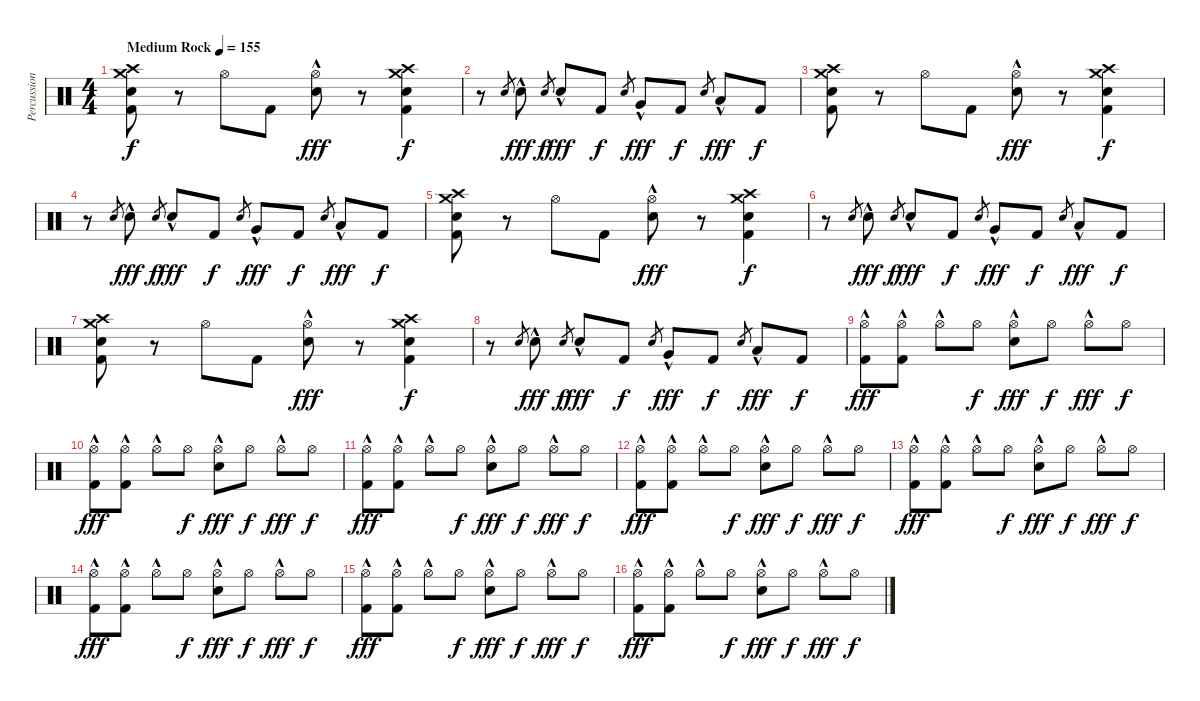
\track ("Percussion" "Percussion") {instrument percussion}
\staff {score}
\articulation defaults
\ts (4 4)
\tempo (155 "Medium Rock")
\clef neutral
\ks c
("Crash high (hit)" "Crash medium (hit)" "Electric Snare (hit)" "Kick (hit) 2").8{dy f} r.8 "Hi-Hat (open)".8 "Kick (hit) 2".8 ("Hi-Hat (open)" "Electric Snare (hit)"{hac}).8{dy fff} r.8 ("Crash high (hit)" "Crash medium (hit)" "Electric Snare (hit)" "Kick (hit) 2").4{dy f} |
r.8 "Electric Snare (hit)".8{gr} "Electric Snare (hit)"{hac}.8{dy fff} "Electric Snare (hit)".8{gr dy f} "Electric Snare (hit)"{hac}.8{dy fff} "Kick (hit) 2".8{dy f} "Electric Snare (hit)"{x}.8{gr} "Very Low Tom (hit)"{hac}.8{dy fff} "Kick (hit) 2".8{dy f} "Electric Snare (hit)"{x}.8{gr} "Low Floor Tom (hit)"{hac}.8{dy fff} "Kick (hit) 2".8{dy f} |
("Crash high (hit)" "Crash medium (hit)" "Electric Snare (hit)" "Kick (hit) 2").8 r.8 "Hi-Hat (open)".8 "Kick (hit) 2".8 ("Hi-Hat (open)" "Electric Snare (hit)"{hac}).8{dy fff} r.8 ("Crash high (hit)" "Crash medium (hit)" "Electric Snare (hit)" "Kick (hit) 2").4{dy f} |
r.8 "Electric Snare (hit)".8{gr} "Electric Snare (hit)"{hac}.8{dy fff} "Electric Snare (hit)".8{gr dy f} "Electric Snare (hit)"{hac}.8{dy fff} "Kick (hit) 2".8{dy f} "Electric Snare (hit)"{x}.8{gr} "Very Low Tom (hit)"{hac}.8{dy fff} "Kick (hit) 2".8{dy f} "Electric Snare (hit)"{x}.8{gr} "Low Floor Tom (hit)"{hac}.8{dy fff} "Kick (hit) 2".8{dy f} |
("Crash high (hit)" "Crash medium (hit)" "Electric Snare (hit)" "Kick (hit) 2").8 r.8 "Hi-Hat (open)".8 "Kick (hit) 2".8 ("Hi-Hat (open)" "Electric Snare (hit)"{hac}).8{dy fff} r.8 ("Crash high (hit)" "Crash medium (hit)" "Electric Snare (hit)" "Kick (hit) 2").4{dy f} |
r.8 "Electric Snare (hit)".8{gr} "Electric Snare (hit)"{hac}.8{dy fff} "Electric Snare (hit)".8{gr dy f} "Electric Snare (hit)"{hac}.8{dy fff} "Kick (hit) 2".8{dy f} "Electric Snare (hit)"{x}.8{gr} "Very Low Tom (hit)"{hac}.8{dy fff} "Kick (hit) 2".8{dy f} "Electric Snare (hit)"{x}.8{gr} "Low Floor Tom (hit)"{hac}.8{dy fff} "Kick (hit) 2".8{dy f} |
("Crash high (hit)" "Crash medium (hit)" "Electric Snare (hit)" "Kick (hit) 2").8 r.8 "Hi-Hat (open)".8 "Kick (hit) 2".8 ("Hi-Hat (open)" "Electric Snare (hit)"{hac}).8{dy fff} r.8 ("Crash high (hit)" "Crash medium (hit)" "Electric Snare (hit)" "Kick (hit) 2").4{dy f} |
r.8 "Electric Snare (hit)".8{gr} "Electric Snare (hit)"{hac}.8{dy fff} "Electric Snare (hit)".8{gr dy f} "Electric Snare (hit)"{hac}.8{dy fff} "Kick (hit) 2".8{dy f} "Electric Snare (hit)"{x}.8{gr} "Very Low Tom (hit)"{hac}.8{dy fff} "Kick (hit) 2".8{dy f} "Electric Snare (hit)"{x}.8{gr} "Low Floor Tom (hit)"{hac}.8{dy fff} "Kick (hit) 2".8{dy f} |
("Hi-Hat (open)"{hac} "Kick (hit) 2"{hac}).8{dy fff} ("Hi-Hat (open)" "Kick (hit) 2"{hac}).8 "Hi-Hat (open)"{hac}.8 "Hi-Hat (open)".8{dy f} ("Hi-Hat (open)"{hac} "Electric Snare (hit)"{hac}).8{dy fff} "Hi-Hat (open)".8{dy f} "Hi-Hat (open)"{hac}.8{dy fff} "Hi-Hat (open)".8{dy f} |
("Hi-Hat (open)"{hac} "Kick (hit) 2"{hac}).8{dy fff} ("Hi-Hat (open)" "Kick (hit) 2"{hac}).8 "Hi-Hat (open)"{hac}.8 "Hi-Hat (open)".8{dy f} ("Hi-Hat (open)"{hac} "Electric Snare (hit)"{hac}).8{dy fff} "Hi-Hat (open)".8{dy f} "Hi-Hat (open)"{hac}.8{dy fff} "Hi-Hat (open)".8{dy f} |
("Hi-Hat (open)"{hac} "Kick (hit) 2"{hac}).8{dy fff} ("Hi-Hat (open)" "Kick (hit) 2"{hac}).8 "Hi-Hat (open)"{hac}.8 "Hi-Hat (open)".8{dy f} ("Hi-Hat (open)"{hac} "Electric Snare (hit)"{hac}).8{dy fff} "Hi-Hat (open)".8{dy f} "Hi-Hat (open)"{hac}.8{dy fff} "Hi-Hat (open)".8{dy f} |
("Hi-Hat (open)"{hac} "Kick (hit) 2"{hac}).8{dy fff} ("Hi-Hat (open)" "Kick (hit) 2"{hac}).8 "Hi-Hat (open)"{hac}.8 "Hi-Hat (open)".8{dy f} ("Hi-Hat (open)"{hac} "Electric Snare (hit)"{hac}).8{dy fff} "Hi-Hat (open)".8{dy f} "Hi-Hat (open)"{hac}.8{dy fff} "Hi-Hat (open)".8{dy f} |
("Hi-Hat (open)"{hac} "Kick (hit) 2"{hac}).8{dy fff} ("Hi-Hat (open)" "Kick (hit) 2"{hac}).8 "Hi-Hat (open)"{hac}.8 "Hi-Hat (open)".8{dy f} ("Hi-Hat (open)"{hac} "Electric Snare (hit)"{hac}).8{dy fff} "Hi-Hat (open)".8{dy f} "Hi-Hat (open)"{hac}.8{dy fff} "Hi-Hat (open)".8{dy f} |
("Hi-Hat (open)"{hac} "Kick (hit) 2"{hac}).8{dy fff} ("Hi-Hat (open)" "Kick (hit) 2"{hac}).8 "Hi-Hat (open)"{hac}.8 "Hi-Hat (open)".8{dy f} ("Hi-Hat (open)"{hac} "Electric Snare (hit)"{hac}).8{dy fff} "Hi-Hat (open)".8{dy f} "Hi-Hat (open)"{hac}.8{dy fff} "Hi-Hat (open)".8{dy f} |
("Hi-Hat (open)"{hac} "Kick (hit) 2"{hac}).8{dy fff} ("Hi-Hat (open)" "Kick (hit) 2"{hac}).8 "Hi-Hat (open)"{hac}.8 "Hi-Hat (open)".8{dy f} ("Hi-Hat (open)"{hac} "Electric Snare (hit)"{hac}).8{dy fff} "Hi-Hat (open)".8{dy f} "Hi-Hat (open)"{hac}.8{dy fff} "Hi-Hat (open)".8{dy f} |
("Hi-Hat (open)"{hac} "Kick (hit) 2"{hac}).8{dy fff} ("Hi-Hat (open)" "Kick (hit) 2"{hac}).8 "Hi-Hat (open)"{hac}.8 "Hi-Hat (open)".8{dy f} ("Hi-Hat (open)"{hac} "Electric Snare (hit)"{hac}).8{dy fff} "Hi-Hat (open)".8{dy f} "Hi-Hat (open)"{hac}.8{dy fff} "Hi-Hat (open)".8{dy f}
